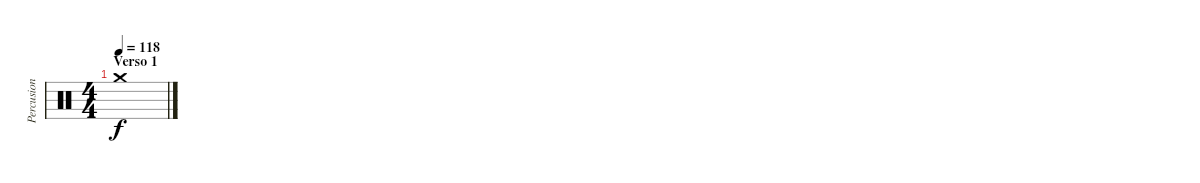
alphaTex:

\track ("Percusion" "Percusion") {instrument percussion}
\staff {score}
\articulation defaults
\ts (4 4)
\section ("" "Verso 1")
\tempo 118
\clef neutral
\ks c "Crash medium (hit)".1{dy f}
